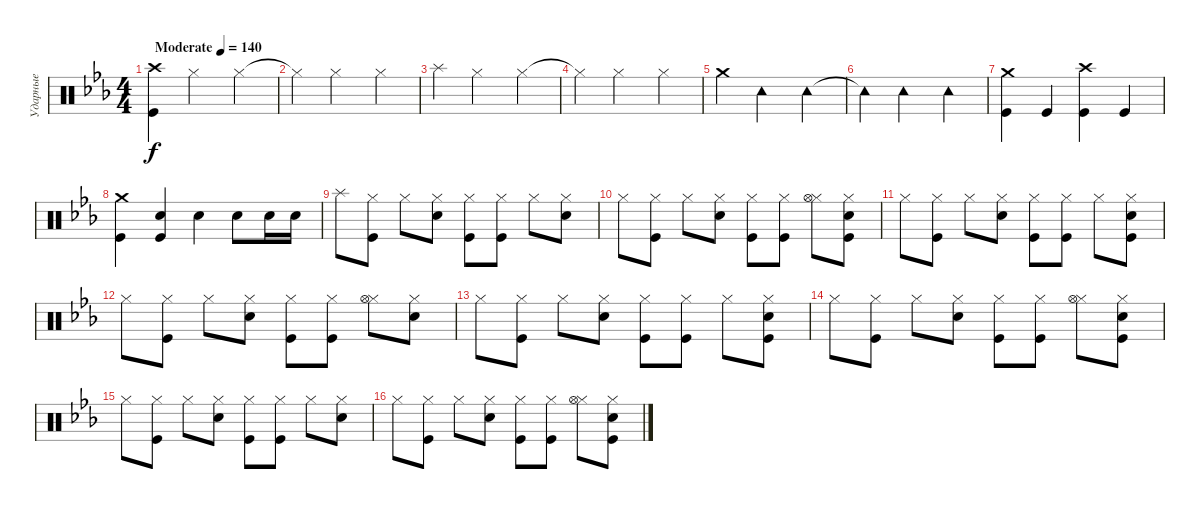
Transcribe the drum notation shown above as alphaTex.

\track ("Ударные" "Ударные") {instrument percussion}
\staff {score}
\articulation defaults
\ts (4 4)
\tempo (140 "Moderate")
\clef neutral
\ks cminor
("Kick (hit)" "Crash high (hit)").4{dy f} "Hi-Hat (closed)".2 "Hi-Hat (closed)".4 |
"Hi-Hat (closed)"{t}.4 "Hi-Hat (closed)".2 "Hi-Hat (closed)".4 |
"Splash (hit)".4 "Hi-Hat (closed)".2 "Hi-Hat (closed)".4 |
"Hi-Hat (closed)"{t}.4 "Hi-Hat (closed)".2 "Hi-Hat (closed)".4 |
"Crash medium (hit)".4 "Tambourine (hit)".2 "Tambourine (hit)".4 |
"Tambourine (hit)"{t}.4 "Tambourine (hit)".2 "Tambourine (hit)".4 |
("Crash medium (hit)" "Kick (hit)").4 "Kick (hit)".4 ("Kick (hit)" "Crash high (hit)").4 "Kick (hit)".4 |
("Crash medium (hit)" "Kick (hit)").4 ("Snare (hit) 2" "Kick (hit)").4 "Snare (hit) 2".4 "Snare (hit) 2".8 "Snare (hit) 2".16 "Snare (hit) 2".16 |
"Splash (hit)".8 ("Hi-Hat (closed)" "Kick (hit)").8 "Hi-Hat (closed)".8 ("Hi-Hat (closed)" "Snare (hit) 2").8 ("Hi-Hat (closed)" "Kick (hit)").8 ("Hi-Hat (closed)" "Kick (hit)").8 "Hi-Hat (closed)".8 ("Hi-Hat (closed)" "Snare (hit) 2").8 |
"Hi-Hat (closed)".8 ("Hi-Hat (closed)" "Kick (hit)").8 "Hi-Hat (closed)".8 ("Hi-Hat (closed)" "Snare (hit) 2").8 ("Hi-Hat (closed)" "Kick (hit)").8 ("Hi-Hat (closed)" "Kick (hit)").8 ("Hi-Hat (closed)" "Hi-Hat (open)").8 ("Hi-Hat (closed)" "Kick (hit)" "Snare (hit) 2").8 |
"Hi-Hat (closed)".8 ("Hi-Hat (closed)" "Kick (hit)").8 "Hi-Hat (closed)".8 ("Hi-Hat (closed)" "Snare (hit) 2").8 ("Hi-Hat (closed)" "Kick (hit)").8 ("Hi-Hat (closed)" "Kick (hit)").8 "Hi-Hat (closed)".8 ("Hi-Hat (closed)" "Kick (hit)" "Snare (hit) 2").8 |
"Hi-Hat (closed)".8 ("Hi-Hat (closed)" "Kick (hit)").8 "Hi-Hat (closed)".8 ("Hi-Hat (closed)" "Snare (hit) 2").8 ("Hi-Hat (closed)" "Kick (hit)").8 ("Hi-Hat (closed)" "Kick (hit)").8 ("Hi-Hat (closed)" "Hi-Hat (open)").8 ("Hi-Hat (closed)" "Snare (hit) 2").8 |
"Hi-Hat (closed)".8 ("Hi-Hat (closed)" "Kick (hit)").8 "Hi-Hat (closed)".8 ("Hi-Hat (closed)" "Snare (hit) 2").8 ("Hi-Hat (closed)" "Kick (hit)").8 ("Hi-Hat (closed)" "Kick (hit)").8 "Hi-Hat (closed)".8 ("Hi-Hat (closed)" "Kick (hit)" "Snare (hit) 2").8 |
"Hi-Hat (closed)".8 ("Hi-Hat (closed)" "Kick (hit)").8 "Hi-Hat (closed)".8 ("Hi-Hat (closed)" "Snare (hit) 2").8 ("Hi-Hat (closed)" "Kick (hit)").8 ("Hi-Hat (closed)" "Kick (hit)").8 ("Hi-Hat (closed)" "Hi-Hat (open)").8 ("Hi-Hat (closed)" "Kick (hit)" "Snare (hit) 2").8 |
"Hi-Hat (closed)".8 ("Hi-Hat (closed)" "Kick (hit)").8 "Hi-Hat (closed)".8 ("Hi-Hat (closed)" "Snare (hit) 2").8 ("Hi-Hat (closed)" "Kick (hit)").8 ("Hi-Hat (closed)" "Kick (hit)").8 "Hi-Hat (closed)".8 ("Hi-Hat (closed)" "Snare (hit) 2").8 |
"Hi-Hat (closed)".8 ("Hi-Hat (closed)" "Kick (hit)").8 "Hi-Hat (closed)".8 ("Hi-Hat (closed)" "Snare (hit) 2").8 ("Hi-Hat (closed)" "Kick (hit)").8 ("Hi-Hat (closed)" "Kick (hit)").8 ("Hi-Hat (closed)" "Hi-Hat (open)").8 ("Hi-Hat (closed)" "Kick (hit)" "Snare (hit) 2").8
